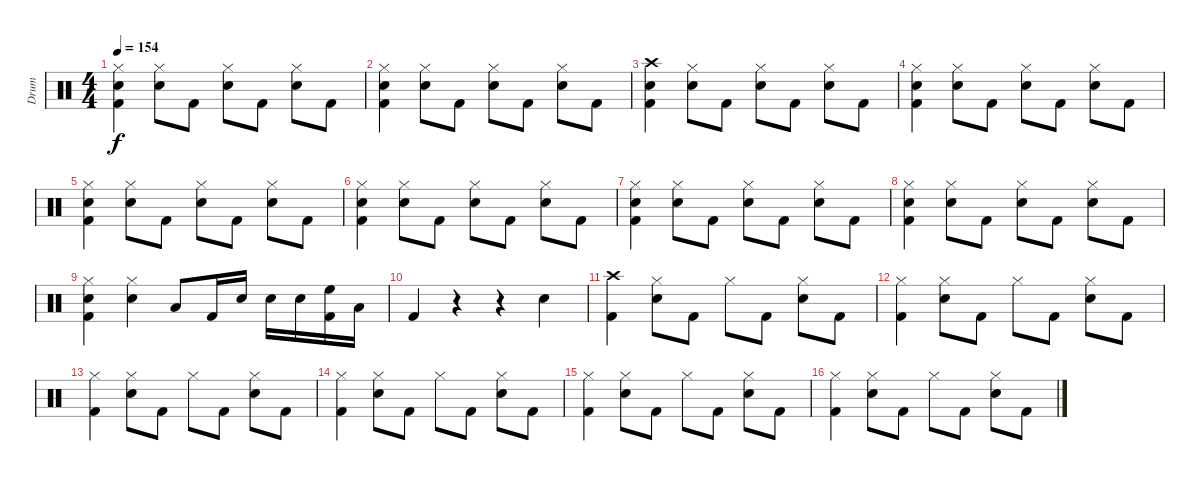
\track ("Drum" "Drum") {instrument percussion}
\staff {score}
\articulation defaults
\ts (4 4)
\tempo 154
\clef neutral
\ks c
("Hi-Hat (closed)" "Electric Snare (hit)" "Kick (hit) 2").4{dy f} ("Hi-Hat (closed)" "Electric Snare (hit)").8 "Kick (hit) 2".8 ("Hi-Hat (closed)" "Electric Snare (hit)").8 "Kick (hit) 2".8 ("Hi-Hat (closed)" "Electric Snare (hit)").8 "Kick (hit) 2".8 |
("Hi-Hat (closed)" "Electric Snare (hit)" "Kick (hit) 2").4 ("Hi-Hat (closed)" "Electric Snare (hit)").8 "Kick (hit) 2".8 ("Hi-Hat (closed)" "Electric Snare (hit)").8 "Kick (hit) 2".8 ("Hi-Hat (closed)" "Electric Snare (hit)").8 "Kick (hit) 2".8 |
("Crash high (hit)" "Electric Snare (hit)" "Kick (hit) 2").4 ("Hi-Hat (closed)" "Electric Snare (hit)").8 "Kick (hit) 2".8 ("Hi-Hat (closed)" "Electric Snare (hit)").8 "Kick (hit) 2".8 ("Hi-Hat (closed)" "Electric Snare (hit)").8 "Kick (hit) 2".8 |
("Hi-Hat (closed)" "Electric Snare (hit)" "Kick (hit) 2").4 ("Hi-Hat (closed)" "Electric Snare (hit)").8 "Kick (hit) 2".8 ("Hi-Hat (closed)" "Electric Snare (hit)").8 "Kick (hit) 2".8 ("Hi-Hat (closed)" "Electric Snare (hit)").8 "Kick (hit) 2".8 |
("Hi-Hat (closed)" "Electric Snare (hit)" "Kick (hit) 2").4 ("Hi-Hat (closed)" "Electric Snare (hit)").8 "Kick (hit) 2".8 ("Hi-Hat (closed)" "Electric Snare (hit)").8 "Kick (hit) 2".8 ("Hi-Hat (closed)" "Electric Snare (hit)").8 "Kick (hit) 2".8 |
("Hi-Hat (closed)" "Electric Snare (hit)" "Kick (hit) 2").4 ("Hi-Hat (closed)" "Electric Snare (hit)").8 "Kick (hit) 2".8 ("Hi-Hat (closed)" "Electric Snare (hit)").8 "Kick (hit) 2".8 ("Hi-Hat (closed)" "Electric Snare (hit)").8 "Kick (hit) 2".8 |
("Hi-Hat (closed)" "Electric Snare (hit)" "Kick (hit) 2").4 ("Hi-Hat (closed)" "Electric Snare (hit)").8 "Kick (hit) 2".8 ("Hi-Hat (closed)" "Electric Snare (hit)").8 "Kick (hit) 2".8 ("Hi-Hat (closed)" "Electric Snare (hit)").8 "Kick (hit) 2".8 |
("Hi-Hat (closed)" "Electric Snare (hit)" "Kick (hit) 2").4 ("Hi-Hat (closed)" "Electric Snare (hit)").8 "Kick (hit) 2".8 ("Hi-Hat (closed)" "Electric Snare (hit)").8 "Kick (hit) 2".8 ("Hi-Hat (closed)" "Electric Snare (hit)").8 "Kick (hit) 2".8 |
("Hi-Hat (closed)" "Electric Snare (hit)" "Kick (hit) 2").4 ("Hi-Hat (closed)" "Electric Snare (hit)").4 "Low Tom (hit)".8 "Kick (hit) 2".16 "Electric Snare (hit)".16 "Electric Snare (hit)".16 "Electric Snare (hit)".16 ("High Floor Tom (hit)" "Kick (hit) 2").16 "Low Tom (hit)".16 |
"Kick (hit) 2".4 r.4 r.4 "Electric Snare (hit)".4 |
("Crash high (hit)" "Kick (hit) 2").4 ("Hi-Hat (closed)" "Electric Snare (hit)").8 "Kick (hit) 2".8 "Hi-Hat (closed)".8 "Kick (hit) 2".8 ("Hi-Hat (closed)" "Electric Snare (hit)").8 "Kick (hit) 2".8 |
("Hi-Hat (closed)" "Kick (hit) 2").4 ("Hi-Hat (closed)" "Electric Snare (hit)").8 "Kick (hit) 2".8 "Hi-Hat (closed)".8 "Kick (hit) 2".8 ("Hi-Hat (closed)" "Electric Snare (hit)").8 "Kick (hit) 2".8 |
("Hi-Hat (closed)" "Kick (hit) 2").4 ("Hi-Hat (closed)" "Electric Snare (hit)").8 "Kick (hit) 2".8 "Hi-Hat (closed)".8 "Kick (hit) 2".8 ("Hi-Hat (closed)" "Electric Snare (hit)").8 "Kick (hit) 2".8 |
("Hi-Hat (closed)" "Kick (hit) 2").4 ("Hi-Hat (closed)" "Electric Snare (hit)").8 "Kick (hit) 2".8 "Hi-Hat (closed)".8 "Kick (hit) 2".8 ("Hi-Hat (closed)" "Electric Snare (hit)").8 "Kick (hit) 2".8 |
("Hi-Hat (closed)" "Kick (hit) 2").4 ("Hi-Hat (closed)" "Electric Snare (hit)").8 "Kick (hit) 2".8 "Hi-Hat (closed)".8 "Kick (hit) 2".8 ("Hi-Hat (closed)" "Electric Snare (hit)").8 "Kick (hit) 2".8 |
("Hi-Hat (closed)" "Kick (hit) 2").4 ("Hi-Hat (closed)" "Electric Snare (hit)").8 "Kick (hit) 2".8 "Hi-Hat (closed)".8 "Kick (hit) 2".8 ("Hi-Hat (closed)" "Electric Snare (hit)").8 "Kick (hit) 2".8
